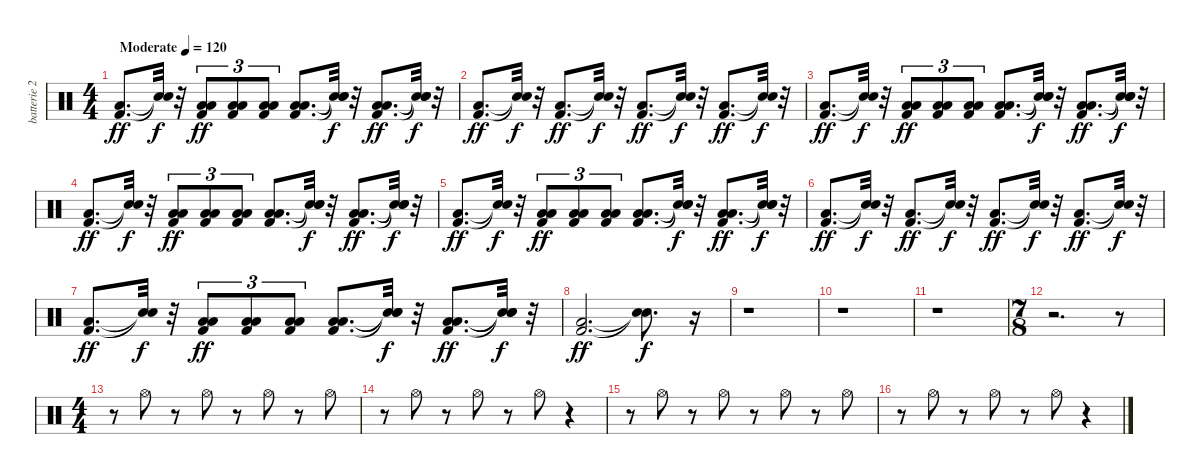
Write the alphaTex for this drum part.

\track ("batterie 2" "batterie 2") {instrument percussion}
\staff {score}
\articulation defaults
\ts (4 4)
\tempo (120 "Moderate")
\clef neutral
\ks c
("Kick (hit) 2" "Low Floor Tom (hit)").8{d dy ff} ("Snare (hit)"{t} "Snare (hit)"{t}).32{dy f} r.32 ("Kick (hit) 2" "Low Floor Tom (hit)" "Low Tom (hit)").8{tu (3 2) dy ff} ("Kick (hit) 2" "Low Floor Tom (hit)" "Low Tom (hit)").8{tu (3 2)} ("Kick (hit) 2" "Low Floor Tom (hit)" "Low Tom (hit)").8{tu (3 2)} ("Kick (hit) 2" "Low Floor Tom (hit)" "Low Tom (hit)").8{d} ("Snare (hit)"{t} "Snare (hit)"{t} "Snare (hit)"{t}).32{dy f} r.32 ("Kick (hit) 2" "Low Floor Tom (hit)" "Low Tom (hit)").8{d dy ff} ("Snare (hit)"{t} "Snare (hit)"{t} "Snare (hit)"{t}).32{dy f} r.32 |
("Kick (hit) 2" "Low Floor Tom (hit)").8{d dy ff} ("Snare (hit)"{t} "Snare (hit)"{t}).32{dy f} r.32 ("Kick (hit) 2" "Low Floor Tom (hit)").8{d dy ff} ("Snare (hit)"{t} "Snare (hit)"{t}).32{dy f} r.32 ("Kick (hit) 2" "Low Floor Tom (hit)").8{d dy ff} ("Snare (hit)"{t} "Snare (hit)"{t}).32{dy f} r.32 ("Kick (hit) 2" "Low Floor Tom (hit)").8{d dy ff} ("Snare (hit)"{t} "Snare (hit)"{t}).32{dy f} r.32 |
("Kick (hit) 2" "Low Floor Tom (hit)").8{d dy ff} ("Snare (hit)"{t} "Snare (hit)"{t}).32{dy f} r.32 ("Kick (hit) 2" "Low Floor Tom (hit)" "Low Tom (hit)").8{tu (3 2) dy ff} ("Kick (hit) 2" "Low Floor Tom (hit)" "Low Tom (hit)").8{tu (3 2)} ("Kick (hit) 2" "Low Floor Tom (hit)" "Low Tom (hit)").8{tu (3 2)} ("Kick (hit) 2" "Low Floor Tom (hit)" "Low Tom (hit)").8{d} ("Snare (hit)"{t} "Snare (hit)"{t} "Snare (hit)"{t}).32{dy f} r.32 ("Kick (hit) 2" "Low Floor Tom (hit)" "Low Tom (hit)").8{d dy ff} ("Snare (hit)"{t} "Snare (hit)"{t} "Snare (hit)"{t}).32{dy f} r.32 |
("Kick (hit) 2" "Low Floor Tom (hit)").8{d dy ff} ("Snare (hit)"{t} "Snare (hit)"{t}).32{dy f} r.32 ("Kick (hit) 2" "Low Floor Tom (hit)" "Low Tom (hit)").8{tu (3 2) dy ff} ("Kick (hit) 2" "Low Floor Tom (hit)" "Low Tom (hit)").8{tu (3 2)} ("Kick (hit) 2" "Low Floor Tom (hit)" "Low Tom (hit)").8{tu (3 2)} ("Kick (hit) 2" "Low Floor Tom (hit)" "Low Tom (hit)").8{d} ("Snare (hit)"{t} "Snare (hit)"{t} "Snare (hit)"{t}).32{dy f} r.32 ("Kick (hit) 2" "Low Floor Tom (hit)" "Low Tom (hit)").8{d dy ff} ("Snare (hit)"{t} "Snare (hit)"{t} "Snare (hit)"{t}).32{dy f} r.32 |
("Kick (hit) 2" "Low Floor Tom (hit)").8{d dy ff} ("Snare (hit)"{t} "Snare (hit)"{t}).32{dy f} r.32 ("Kick (hit) 2" "Low Floor Tom (hit)" "Low Tom (hit)").8{tu (3 2) dy ff} ("Kick (hit) 2" "Low Floor Tom (hit)" "Low Tom (hit)").8{tu (3 2)} ("Kick (hit) 2" "Low Floor Tom (hit)" "Low Tom (hit)").8{tu (3 2)} ("Kick (hit) 2" "Low Floor Tom (hit)" "Low Tom (hit)").8{d} ("Snare (hit)"{t} "Snare (hit)"{t} "Snare (hit)"{t}).32{dy f} r.32 ("Kick (hit) 2" "Low Floor Tom (hit)" "Low Tom (hit)").8{d dy ff} ("Snare (hit)"{t} "Snare (hit)"{t} "Snare (hit)"{t}).32{dy f} r.32 |
("Kick (hit) 2" "Low Floor Tom (hit)").8{d dy ff} ("Snare (hit)"{t} "Snare (hit)"{t}).32{dy f} r.32 ("Kick (hit) 2" "Low Floor Tom (hit)").8{d dy ff} ("Snare (hit)"{t} "Snare (hit)"{t}).32{dy f} r.32 ("Kick (hit) 2" "Low Floor Tom (hit)").8{d dy ff} ("Snare (hit)"{t} "Snare (hit)"{t}).32{dy f} r.32 ("Kick (hit) 2" "Low Floor Tom (hit)").8{d dy ff} ("Snare (hit)"{t} "Snare (hit)"{t}).32{dy f} r.32 |
("Kick (hit) 2" "Low Floor Tom (hit)").8{d dy ff} ("Snare (hit)"{t} "Snare (hit)"{t}).32{dy f} r.32 ("Kick (hit) 2" "Low Floor Tom (hit)" "Low Tom (hit)").8{tu (3 2) dy ff} ("Kick (hit) 2" "Low Floor Tom (hit)" "Low Tom (hit)").8{tu (3 2)} ("Kick (hit) 2" "Low Floor Tom (hit)" "Low Tom (hit)").8{tu (3 2)} ("Kick (hit) 2" "Low Floor Tom (hit)" "Low Tom (hit)").8{d} ("Snare (hit)"{t} "Snare (hit)"{t} "Snare (hit)"{t}).32{dy f} r.32 ("Kick (hit) 2" "Low Floor Tom (hit)" "Low Tom (hit)").8{d dy ff} ("Snare (hit)"{t} "Snare (hit)"{t} "Snare (hit)"{t}).32{dy f} r.32 |
("Kick (hit) 2" "Low Floor Tom (hit)").2{d dy ff} ("Snare (hit)"{t} "Snare (hit)"{t}).8{d dy f} r.16 |
r.1 |
r.1 |
r.1 |
\ts (7 8)
r.2{d} r.8 |
\ts (4 4)
r.8 "Hi-Hat (open)".8 r.8 "Hi-Hat (open)".8 r.8 "Hi-Hat (open)".8 r.8 "Hi-Hat (open)".8 |
r.8 "Hi-Hat (open)".8 r.8 "Hi-Hat (open)".8 r.8 "Hi-Hat (open)".8 r.4 |
r.8 "Hi-Hat (open)".8 r.8 "Hi-Hat (open)".8 r.8 "Hi-Hat (open)".8 r.8 "Hi-Hat (open)".8 |
r.8 "Hi-Hat (open)".8 r.8 "Hi-Hat (open)".8 r.8 "Hi-Hat (open)".8 r.4
